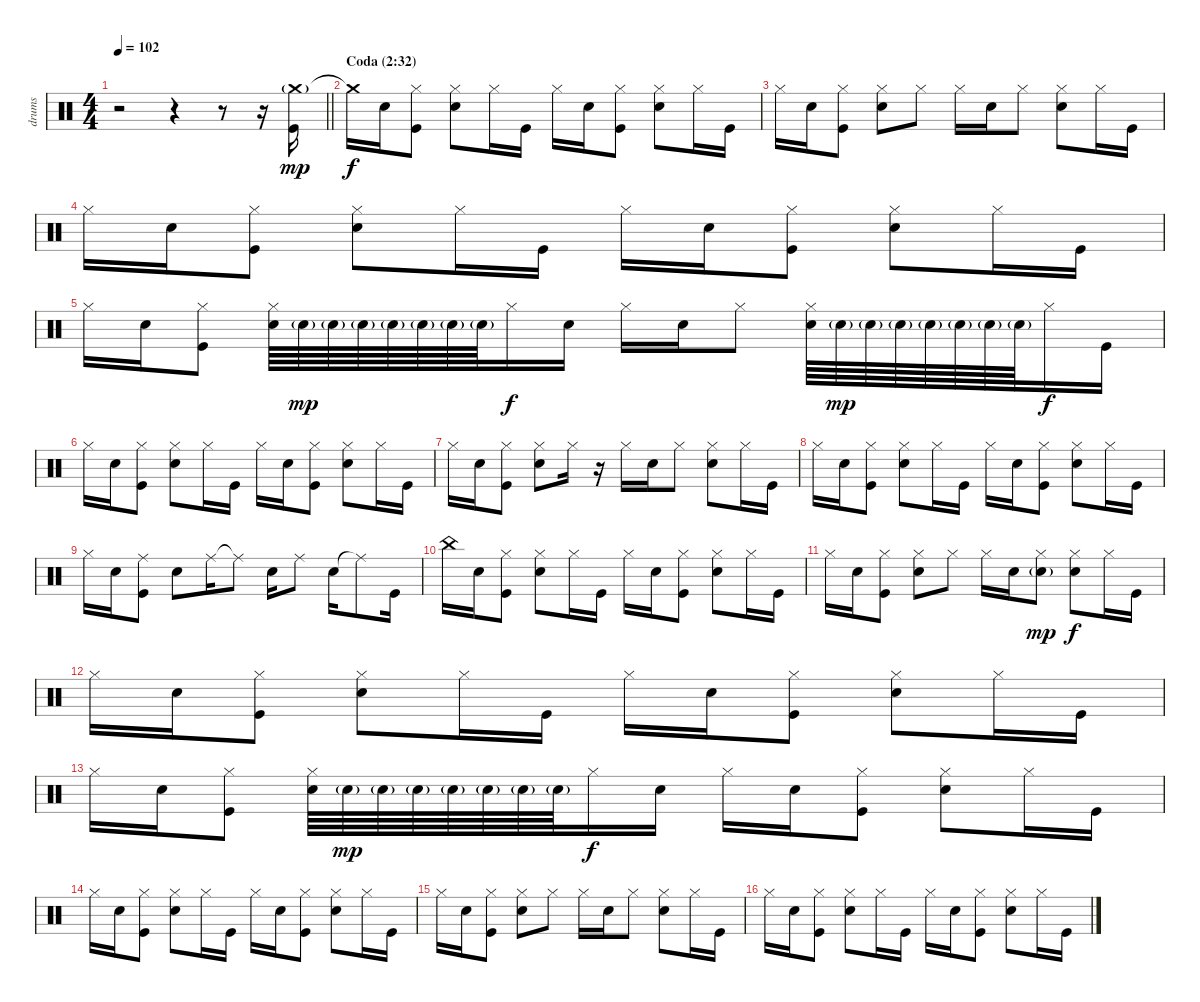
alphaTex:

\track ("drums" "drums") {instrument percussion}
\staff {score}
\articulation defaults
\ts (4 4)
\tempo 102
\clef neutral
\barLineRight lightlight
\ks c
r.2{dy f} r.4 r.8 r.16 ("Crash medium (hit)"{g} "Kick (hit)").16{dy mp} |
\section ("" "Coda (2:32)")
"Crash medium (hit)"{t}.16{dy f volume 9} "Snare (hit) 2".16 ("Kick (hit)" "Hi-Hat (closed)").8 ("Snare (hit) 2" "Hi-Hat (closed)").8 "Hi-Hat (closed)".16 "Kick (hit)".16 "Hi-Hat (closed)".16 "Snare (hit) 2".16 ("Hi-Hat (closed)" "Kick (hit)").8 ("Hi-Hat (closed)" "Snare (hit) 2").8 "Hi-Hat (closed)".16 "Kick (hit)".16 |
"Hi-Hat (closed)".16 "Snare (hit) 2".16 ("Hi-Hat (closed)" "Kick (hit)").8 ("Hi-Hat (closed)" "Snare (hit) 2").8 "Hi-Hat (closed)".8 "Hi-Hat (closed)".16 "Snare (hit) 2".16 "Hi-Hat (closed)".8 ("Hi-Hat (closed)" "Snare (hit) 2").8 "Hi-Hat (closed)".16 "Kick (hit)".16 |
"Hi-Hat (closed)".16 "Snare (hit) 2".16 ("Hi-Hat (closed)" "Kick (hit)").8 ("Hi-Hat (closed)" "Snare (hit) 2").8 "Hi-Hat (closed)".16 "Kick (hit)".16 "Hi-Hat (closed)".16 "Snare (hit) 2".16 ("Hi-Hat (closed)" "Kick (hit)").8 ("Hi-Hat (closed)" "Snare (hit) 2").8 "Hi-Hat (closed)".16 "Kick (hit)".16 |
"Hi-Hat (closed)".16 "Snare (hit) 2".16 ("Hi-Hat (closed)" "Kick (hit)").8 ("Hi-Hat (closed)" "Snare (hit) 2").64 "Snare (hit) 2"{g}.64{dy mp} "Snare (hit) 2"{g}.64 "Snare (hit) 2"{g}.64 "Snare (hit) 2"{g}.64 "Snare (hit) 2"{g}.64 "Snare (hit) 2"{g}.64 "Snare (hit) 2"{g}.64 "Hi-Hat (closed)".16{dy f} "Snare (hit) 2".16 "Hi-Hat (closed)".16 "Snare (hit) 2".16 "Hi-Hat (closed)".8 ("Hi-Hat (closed)" "Snare (hit) 2").64 "Snare (hit) 2"{g}.64{dy mp} "Snare (hit) 2"{g}.64 "Snare (hit) 2"{g}.64 "Snare (hit) 2"{g}.64 "Snare (hit) 2"{g}.64 "Snare (hit) 2"{g}.64 "Snare (hit) 2"{g}.64 "Hi-Hat (closed)".16{dy f} "Kick (hit)".16 |
"Hi-Hat (closed)".16 "Snare (hit) 2".16 ("Hi-Hat (closed)" "Kick (hit)").8 ("Hi-Hat (closed)" "Snare (hit) 2").8 "Hi-Hat (closed)".16 "Kick (hit)".16 "Hi-Hat (closed)".16 "Snare (hit) 2".16 ("Hi-Hat (closed)" "Kick (hit)").8 ("Hi-Hat (closed)" "Snare (hit) 2").8 "Hi-Hat (closed)".16 "Kick (hit)".16 |
"Hi-Hat (closed)".16 "Snare (hit) 2".16 ("Hi-Hat (closed)" "Kick (hit)").8 ("Hi-Hat (closed)" "Snare (hit) 2").8 "Hi-Hat (closed)".16 r.16 "Hi-Hat (closed)".16 "Snare (hit) 2".16 "Hi-Hat (closed)".8 ("Hi-Hat (closed)" "Snare (hit) 2").8 "Hi-Hat (closed)".16 "Kick (hit)".16 |
"Hi-Hat (closed)".16 "Snare (hit) 2".16 ("Hi-Hat (closed)" "Kick (hit)").8 ("Hi-Hat (closed)" "Snare (hit) 2").8 "Hi-Hat (closed)".16 "Kick (hit)".16 "Hi-Hat (closed)".16 "Snare (hit) 2".16 ("Hi-Hat (closed)" "Kick (hit)").8 ("Hi-Hat (closed)" "Snare (hit) 2").8 "Hi-Hat (closed)".16 "Kick (hit)".16 |
"Hi-Hat (closed)".16 "Snare (hit) 2".16 ("Ride (middle)" "Kick (hit)").8 "Snare (hit) 2".8 "Ride (middle)".16 "Ride (middle)"{t}.8 "Snare (hit) 2".16 "Ride (middle)".8 "Snare (hit) 2".16 "Ride (middle)"{t}.8 "Kick (hit)".16 |
"China (hit)".16 "Snare (hit) 2".16 ("Hi-Hat (closed)" "Kick (hit)").8 ("Hi-Hat (closed)" "Snare (hit) 2").8 "Hi-Hat (closed)".16 "Kick (hit)".16 "Hi-Hat (closed)".16 "Snare (hit) 2".16 ("Hi-Hat (closed)" "Kick (hit)").8 ("Hi-Hat (closed)" "Snare (hit) 2").8 "Hi-Hat (closed)".16 "Kick (hit)".16 |
"Hi-Hat (closed)".16 "Snare (hit) 2".16 ("Hi-Hat (closed)" "Kick (hit)").8 ("Hi-Hat (closed)" "Snare (hit) 2").8 "Hi-Hat (closed)".8 "Hi-Hat (closed)".16 "Snare (hit) 2".16 ("Hi-Hat (closed)" "Snare (hit) 2"{g}).8{dy mp} ("Hi-Hat (closed)" "Snare (hit) 2").8{dy f} "Hi-Hat (closed)".16 "Kick (hit)".16 |
"Hi-Hat (closed)".16 "Snare (hit) 2".16 ("Hi-Hat (closed)" "Kick (hit)").8 ("Hi-Hat (closed)" "Snare (hit) 2").8 "Hi-Hat (closed)".16 "Kick (hit)".16 "Hi-Hat (closed)".16 "Snare (hit) 2".16 ("Hi-Hat (closed)" "Kick (hit)").8 ("Hi-Hat (closed)" "Snare (hit) 2").8 "Hi-Hat (closed)".16 "Kick (hit)".16 |
"Hi-Hat (closed)".16 "Snare (hit) 2".16 ("Hi-Hat (closed)" "Kick (hit)").8 ("Hi-Hat (closed)" "Snare (hit) 2").64 "Snare (hit) 2"{g}.64{dy mp} "Snare (hit) 2"{g}.64 "Snare (hit) 2"{g}.64 "Snare (hit) 2"{g}.64 "Snare (hit) 2"{g}.64 "Snare (hit) 2"{g}.64 "Snare (hit) 2"{g}.64 "Hi-Hat (closed)".16{dy f} "Snare (hit) 2".16 "Hi-Hat (closed)".16 "Snare (hit) 2".16 ("Hi-Hat (closed)" "Kick (hit)").8 ("Hi-Hat (closed)" "Snare (hit) 2").8 "Hi-Hat (closed)".16 "Kick (hit)".16 |
"Hi-Hat (closed)".16 "Snare (hit) 2".16 ("Hi-Hat (closed)" "Kick (hit)").8 ("Hi-Hat (closed)" "Snare (hit) 2").8 "Hi-Hat (closed)".16 "Kick (hit)".16 "Hi-Hat (closed)".16 "Snare (hit) 2".16 ("Hi-Hat (closed)" "Kick (hit)").8 ("Hi-Hat (closed)" "Snare (hit) 2").8 "Hi-Hat (closed)".16 "Kick (hit)".16 |
"Hi-Hat (closed)".16 "Snare (hit) 2".16 ("Hi-Hat (closed)" "Kick (hit)").8 ("Hi-Hat (closed)" "Snare (hit) 2").8 "Hi-Hat (closed)".8 "Hi-Hat (closed)".16 "Snare (hit) 2".16 "Hi-Hat (closed)".8 ("Hi-Hat (closed)" "Snare (hit) 2").8 "Hi-Hat (closed)".16 "Kick (hit)".16 |
"Hi-Hat (closed)".16 "Snare (hit) 2".16 ("Hi-Hat (closed)" "Kick (hit)").8 ("Hi-Hat (closed)" "Snare (hit) 2").8 "Hi-Hat (closed)".16 "Kick (hit)".16 "Hi-Hat (closed)".16 "Snare (hit) 2".16 ("Hi-Hat (closed)" "Kick (hit)").8 ("Hi-Hat (closed)" "Snare (hit) 2").8 "Hi-Hat (closed)".16 "Kick (hit)".16
